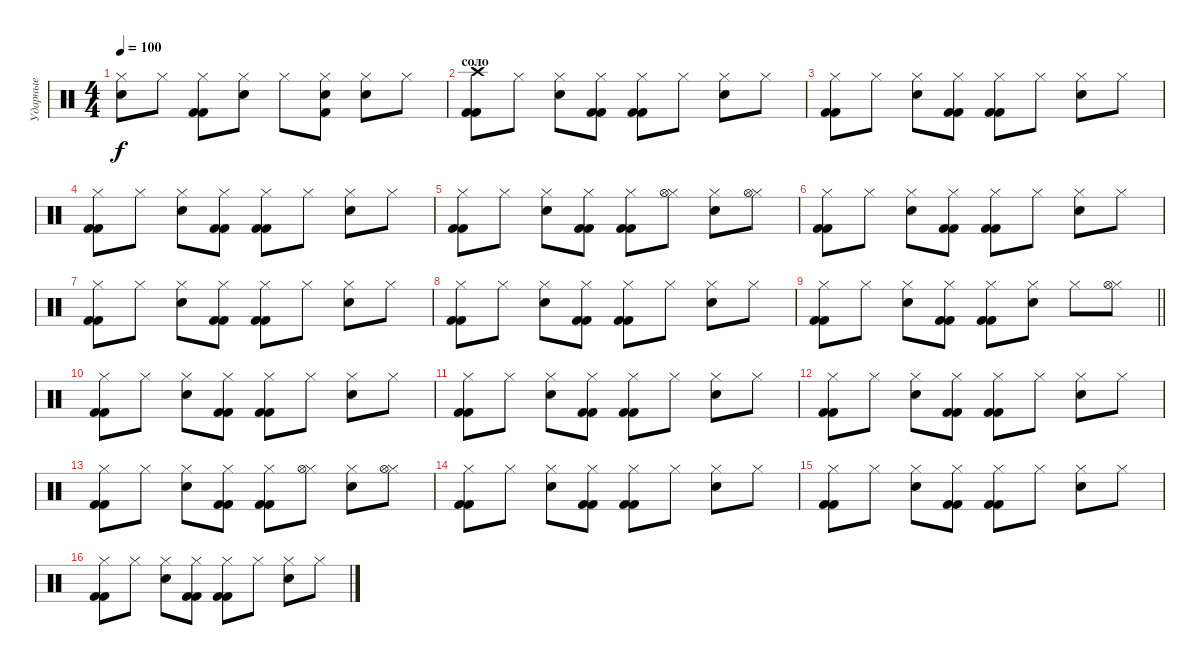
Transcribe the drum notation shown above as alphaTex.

\track ("Ударные" "Ударные") {instrument percussion}
\staff {score}
\articulation defaults
\ts (4 4)
\tempo 100
\clef neutral
\ks c
("Hi-Hat (closed)" "Snare (hit) 2").8{dy f} "Hi-Hat (closed)".8 ("Hi-Hat (closed)" "Kick (hit) 2" "Kick (hit) 2").8 ("Hi-Hat (closed)" "Snare (hit) 2").8 "Hi-Hat (closed)".8 ("Hi-Hat (closed)" "Snare (hit) 2" "Kick (hit) 2").8 ("Hi-Hat (closed)" "Snare (hit) 2").8 "Hi-Hat (closed)".8 |
\section ("" "соло")
("Crash high (hit)" "Kick (hit) 2" "Kick (hit) 2").8 "Hi-Hat (closed)".8 ("Hi-Hat (closed)" "Snare (hit) 2").8 ("Hi-Hat (closed)" "Kick (hit) 2" "Kick (hit) 2").8 ("Hi-Hat (closed)" "Kick (hit) 2" "Kick (hit) 2").8 "Hi-Hat (closed)".8 ("Hi-Hat (closed)" "Snare (hit) 2").8 "Hi-Hat (closed)".8 |
("Hi-Hat (closed)" "Kick (hit) 2" "Kick (hit) 2").8 "Hi-Hat (closed)".8 ("Hi-Hat (closed)" "Snare (hit) 2").8 ("Hi-Hat (closed)" "Kick (hit) 2" "Kick (hit) 2").8 ("Hi-Hat (closed)" "Kick (hit) 2" "Kick (hit) 2").8 "Hi-Hat (closed)".8 ("Hi-Hat (closed)" "Snare (hit) 2").8 "Hi-Hat (closed)".8 |
("Hi-Hat (closed)" "Kick (hit) 2" "Kick (hit) 2").8 "Hi-Hat (closed)".8 ("Hi-Hat (closed)" "Snare (hit) 2").8 ("Hi-Hat (closed)" "Kick (hit) 2" "Kick (hit) 2").8 ("Hi-Hat (closed)" "Kick (hit) 2" "Kick (hit) 2").8 "Hi-Hat (closed)".8 ("Hi-Hat (closed)" "Snare (hit) 2").8 "Hi-Hat (closed)".8 |
("Hi-Hat (closed)" "Kick (hit) 2" "Kick (hit) 2").8 "Hi-Hat (closed)".8 ("Hi-Hat (closed)" "Snare (hit) 2").8 ("Hi-Hat (closed)" "Kick (hit) 2" "Kick (hit) 2").8 ("Hi-Hat (closed)" "Kick (hit) 2" "Kick (hit) 2").8 ("Hi-Hat (closed)" "Hi-Hat (open)").8 ("Hi-Hat (closed)" "Snare (hit) 2").8 ("Hi-Hat (closed)" "Hi-Hat (open)").8 |
("Hi-Hat (closed)" "Kick (hit) 2" "Kick (hit) 2").8 "Hi-Hat (closed)".8 ("Hi-Hat (closed)" "Snare (hit) 2").8 ("Hi-Hat (closed)" "Kick (hit) 2" "Kick (hit) 2").8 ("Hi-Hat (closed)" "Kick (hit) 2" "Kick (hit) 2").8 "Hi-Hat (closed)".8 ("Hi-Hat (closed)" "Snare (hit) 2").8 "Hi-Hat (closed)".8 |
("Hi-Hat (closed)" "Kick (hit) 2" "Kick (hit) 2").8 "Hi-Hat (closed)".8 ("Hi-Hat (closed)" "Snare (hit) 2").8 ("Hi-Hat (closed)" "Kick (hit) 2" "Kick (hit) 2").8 ("Hi-Hat (closed)" "Kick (hit) 2" "Kick (hit) 2").8 "Hi-Hat (closed)".8 ("Hi-Hat (closed)" "Snare (hit) 2").8 "Hi-Hat (closed)".8 |
("Hi-Hat (closed)" "Kick (hit) 2" "Kick (hit) 2").8 "Hi-Hat (closed)".8 ("Hi-Hat (closed)" "Snare (hit) 2").8 ("Hi-Hat (closed)" "Kick (hit) 2" "Kick (hit) 2").8 ("Hi-Hat (closed)" "Kick (hit) 2" "Kick (hit) 2").8 "Hi-Hat (closed)".8 ("Hi-Hat (closed)" "Snare (hit) 2").8 "Hi-Hat (closed)".8 |
\barLineRight lightlight
("Hi-Hat (closed)" "Kick (hit) 2" "Kick (hit) 2").8 "Hi-Hat (closed)".8 ("Hi-Hat (closed)" "Snare (hit) 2").8 ("Hi-Hat (closed)" "Kick (hit) 2" "Kick (hit) 2").8 ("Hi-Hat (closed)" "Kick (hit) 2" "Kick (hit) 2").8 ("Hi-Hat (closed)" "Snare (hit) 2").8 "Hi-Hat (closed)".8 ("Hi-Hat (closed)" "Hi-Hat (open)").8 |
("Hi-Hat (closed)" "Kick (hit) 2" "Kick (hit) 2").8 "Hi-Hat (closed)".8 ("Hi-Hat (closed)" "Snare (hit) 2").8 ("Hi-Hat (closed)" "Kick (hit) 2" "Kick (hit) 2").8 ("Hi-Hat (closed)" "Kick (hit) 2" "Kick (hit) 2").8 "Hi-Hat (closed)".8 ("Hi-Hat (closed)" "Snare (hit) 2").8 "Hi-Hat (closed)".8 |
("Hi-Hat (closed)" "Kick (hit) 2" "Kick (hit) 2").8 "Hi-Hat (closed)".8 ("Hi-Hat (closed)" "Snare (hit) 2").8 ("Hi-Hat (closed)" "Kick (hit) 2" "Kick (hit) 2").8 ("Hi-Hat (closed)" "Kick (hit) 2" "Kick (hit) 2").8 "Hi-Hat (closed)".8 ("Hi-Hat (closed)" "Snare (hit) 2").8 "Hi-Hat (closed)".8 |
("Hi-Hat (closed)" "Kick (hit) 2" "Kick (hit) 2").8 "Hi-Hat (closed)".8 ("Hi-Hat (closed)" "Snare (hit) 2").8 ("Hi-Hat (closed)" "Kick (hit) 2" "Kick (hit) 2").8 ("Hi-Hat (closed)" "Kick (hit) 2" "Kick (hit) 2").8 "Hi-Hat (closed)".8 ("Hi-Hat (closed)" "Snare (hit) 2").8 "Hi-Hat (closed)".8 |
("Hi-Hat (closed)" "Kick (hit) 2" "Kick (hit) 2").8 "Hi-Hat (closed)".8 ("Hi-Hat (closed)" "Snare (hit) 2").8 ("Hi-Hat (closed)" "Kick (hit) 2" "Kick (hit) 2").8 ("Hi-Hat (closed)" "Kick (hit) 2" "Kick (hit) 2").8 ("Hi-Hat (closed)" "Hi-Hat (open)").8 ("Hi-Hat (closed)" "Snare (hit) 2").8 ("Hi-Hat (closed)" "Hi-Hat (open)").8 |
("Hi-Hat (closed)" "Kick (hit) 2" "Kick (hit) 2").8 "Hi-Hat (closed)".8 ("Hi-Hat (closed)" "Snare (hit) 2").8 ("Hi-Hat (closed)" "Kick (hit) 2" "Kick (hit) 2").8 ("Hi-Hat (closed)" "Kick (hit) 2" "Kick (hit) 2").8 "Hi-Hat (closed)".8 ("Hi-Hat (closed)" "Snare (hit) 2").8 "Hi-Hat (closed)".8 |
("Hi-Hat (closed)" "Kick (hit) 2" "Kick (hit) 2").8 "Hi-Hat (closed)".8 ("Hi-Hat (closed)" "Snare (hit) 2").8 ("Hi-Hat (closed)" "Kick (hit) 2" "Kick (hit) 2").8 ("Hi-Hat (closed)" "Kick (hit) 2" "Kick (hit) 2").8 "Hi-Hat (closed)".8 ("Hi-Hat (closed)" "Snare (hit) 2").8 "Hi-Hat (closed)".8 |
("Hi-Hat (closed)" "Kick (hit) 2" "Kick (hit) 2").8 "Hi-Hat (closed)".8 ("Hi-Hat (closed)" "Snare (hit) 2").8 ("Hi-Hat (closed)" "Kick (hit) 2" "Kick (hit) 2").8 ("Hi-Hat (closed)" "Kick (hit) 2" "Kick (hit) 2").8 "Hi-Hat (closed)".8 ("Hi-Hat (closed)" "Snare (hit) 2").8 "Hi-Hat (closed)".8
